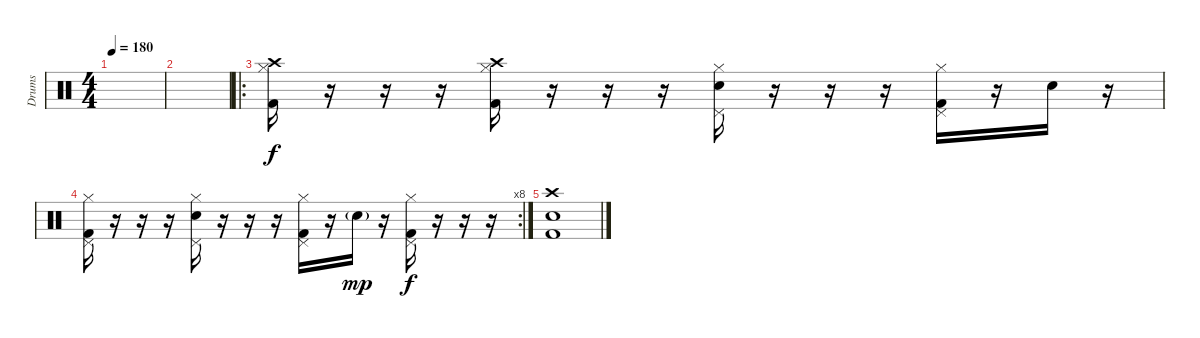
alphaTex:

\track ("Drums" "Drums") {instrument percussion}
\staff {score}
\articulation defaults
\ts (4 4)
\tempo 180
\clef neutral
\ks c
|
|
\ro
("Crash high (hit)" "Hi-Hat (closed)" "Kick (hit) 2").16 r.16 r.16 r.16 ("Crash high (hit)" "Hi-Hat (closed)" "Kick (hit) 2").16 r.16 r.16 r.16 ("Pedal Hi-Hat (hit)" "Hi-Hat (closed)" "Electric Snare (hit)").16 r.16 r.16 r.16 ("Pedal Hi-Hat (hit)" "Hi-Hat (closed)" "Kick (hit) 2").16 r.16 "Electric Snare (hit)".16 r.16 |
\rc 8
("Pedal Hi-Hat (hit)" "Hi-Hat (closed)" "Kick (hit) 2").16 r.16 r.16 r.16 ("Pedal Hi-Hat (hit)" "Hi-Hat (closed)" "Electric Snare (hit)").16 r.16 r.16 r.16 ("Pedal Hi-Hat (hit)" "Hi-Hat (closed)" "Kick (hit) 2").16 r.16 "Electric Snare (hit)"{g}.16{dy mp} r.16 ("Pedal Hi-Hat (hit)" "Hi-Hat (closed)" "Kick (hit) 2").16{dy f} r.16 r.16 r.16 |
("Crash high (hit)" "Electric Snare (hit)" "Kick (hit) 2").1
